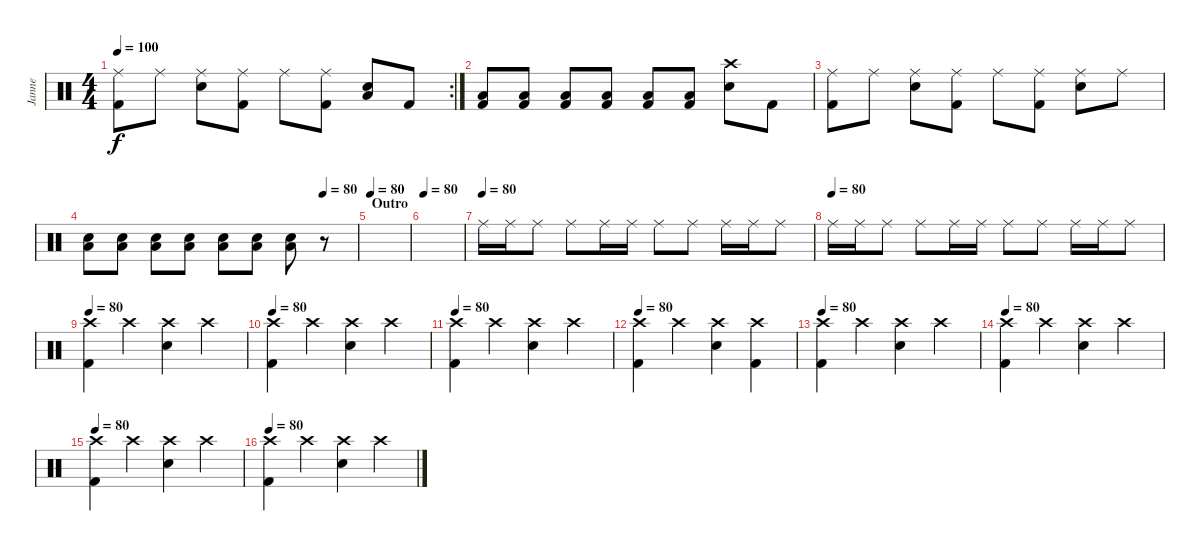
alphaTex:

\track ("Janne" "Janne") {instrument percussion}
\staff {score}
\articulation defaults
\rc 2
\ts (4 4)
\tempo 100
\clef neutral
\ks c
("Ride (middle)" "Kick (hit) 2").8{dy f} "Ride (middle)".8 ("Ride (middle)" "Electric Snare (hit)").8 ("Ride (middle)" "Kick (hit) 2").8 "Ride (middle)".8 ("Ride (middle)" "Kick (hit) 2").8 ("Low Floor Tom (hit)" "Electric Snare (hit)").8 "Kick (hit) 2".8 |
("Low Floor Tom (hit)" "Kick (hit) 2").8 ("Low Floor Tom (hit)" "Kick (hit) 2").8 ("Low Floor Tom (hit)" "Kick (hit) 2").8 ("Low Floor Tom (hit)" "Kick (hit) 2").8 ("Low Floor Tom (hit)" "Kick (hit) 2").8 ("Low Floor Tom (hit)" "Kick (hit) 2").8 ("Crash high (hit)" "Electric Snare (hit)").8 "Kick (hit) 2".8 |
("Ride (middle)" "Kick (hit) 2").8 "Ride (middle)".8 ("Ride (middle)" "Electric Snare (hit)").8 ("Ride (middle)" "Kick (hit) 2").8 "Ride (middle)".8 ("Ride (middle)" "Kick (hit) 2").8 ("Ride (middle)" "Electric Snare (hit)").8 "Ride (middle)".8 |
\tempo (80 0.875)
("Low Floor Tom (hit)" "Electric Snare (hit)").8 ("Low Floor Tom (hit)" "Electric Snare (hit)").8 ("Low Floor Tom (hit)" "Electric Snare (hit)").8 ("Low Floor Tom (hit)" "Electric Snare (hit)").8 ("Low Floor Tom (hit)" "Electric Snare (hit)").8 ("Low Floor Tom (hit)" "Electric Snare (hit)").8 ("Low Floor Tom (hit)" "Electric Snare (hit)").8 r.8 |
\section ("" "Outro")
\tempo 80
|
\tempo 80
|
\tempo (80)
"Ride (middle)".16 "Ride (middle)".16 "Ride (middle)".8 "Ride (middle)".8 "Ride (middle)".16 "Ride (middle)".16 "Ride (middle)".8 "Ride (middle)".8 "Ride (middle)".16 "Ride (middle)".16 "Ride (middle)".8 |
\tempo (80)
"Ride (middle)".16 "Ride (middle)".16 "Ride (middle)".8 "Ride (middle)".8 "Ride (middle)".16 "Ride (middle)".16 "Ride (middle)".8 "Ride (middle)".8 "Ride (middle)".16 "Ride (middle)".16 "Ride (middle)".8 |
\tempo 80
("Crash high (hit)" "Kick (hit) 2").4 "Crash high (hit)".4 ("Crash high (hit)" "Electric Snare (hit)").4 "Crash high (hit)".4 |
\tempo 80
("Crash high (hit)" "Kick (hit) 2").4 "Crash high (hit)".4 ("Crash high (hit)" "Electric Snare (hit)").4 "Crash high (hit)".4 |
\tempo 80
("Crash high (hit)" "Kick (hit) 2").4 "Crash high (hit)".4 ("Crash high (hit)" "Electric Snare (hit)").4 "Crash high (hit)".4 |
\tempo 80
("Crash high (hit)" "Kick (hit) 2").4 "Crash high (hit)".4 ("Crash high (hit)" "Electric Snare (hit)").4 ("Crash high (hit)" "Kick (hit) 2").4 |
\tempo 80
("Crash high (hit)" "Kick (hit) 2").4 "Crash high (hit)".4 ("Crash high (hit)" "Electric Snare (hit)").4 "Crash high (hit)".4 |
\tempo 80
("Crash high (hit)" "Kick (hit) 2").4 "Crash high (hit)".4 ("Crash high (hit)" "Electric Snare (hit)").4 "Crash high (hit)".4 |
\tempo 80
("Crash high (hit)" "Kick (hit) 2").4 "Crash high (hit)".4 ("Crash high (hit)" "Electric Snare (hit)").4 "Crash high (hit)".4 |
\tempo 80
("Crash high (hit)" "Kick (hit) 2").4 "Crash high (hit)".4 ("Crash high (hit)" "Electric Snare (hit)").4 "Crash high (hit)".4
